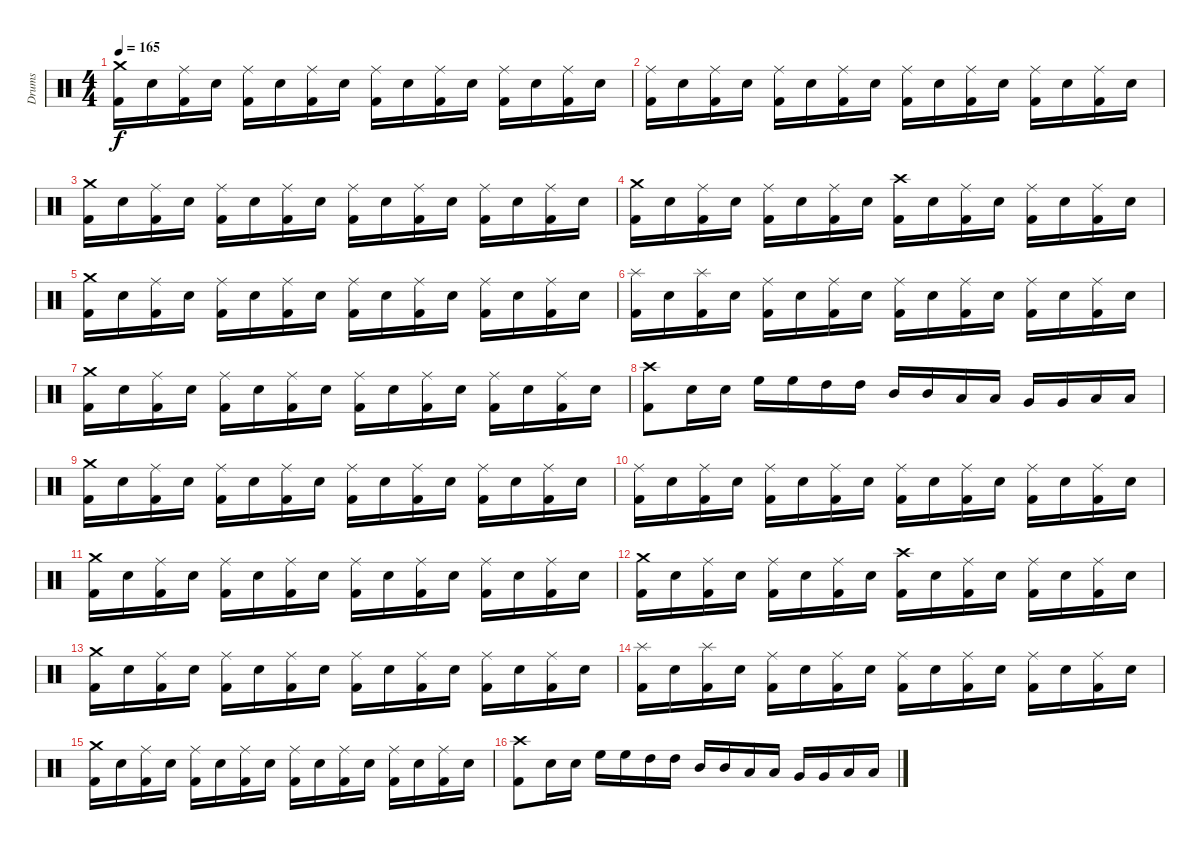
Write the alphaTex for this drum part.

\track ("Drums" "Drums") {instrument percussion}
\staff {score}
\articulation defaults
\ts (4 4)
\tempo 165
\clef neutral
\ks c
("Kick (hit) 2" "Crash medium (hit)").16{dy f} "Electric Snare (hit)".16 ("Kick (hit) 2" "Ride (middle)").16 "Electric Snare (hit)".16 ("Kick (hit) 2" "Ride (middle)").16 "Electric Snare (hit)".16 ("Kick (hit) 2" "Ride (middle)").16 "Electric Snare (hit)".16 ("Kick (hit) 2" "Ride (middle)").16 "Electric Snare (hit)".16 ("Kick (hit) 2" "Ride (middle)").16 "Electric Snare (hit)".16 ("Kick (hit) 2" "Ride (middle)").16 "Electric Snare (hit)".16 ("Kick (hit) 2" "Ride (middle)").16 "Electric Snare (hit)".16 |
("Kick (hit) 2" "Ride (middle)").16 "Electric Snare (hit)".16 ("Kick (hit) 2" "Ride (middle)").16 "Electric Snare (hit)".16 ("Kick (hit) 2" "Ride (middle)").16 "Electric Snare (hit)".16 ("Kick (hit) 2" "Ride (middle)").16 "Electric Snare (hit)".16 ("Kick (hit) 2" "Ride (middle)").16 "Electric Snare (hit)".16 ("Kick (hit) 2" "Ride (middle)").16 "Electric Snare (hit)".16 ("Kick (hit) 2" "Ride (middle)").16 "Electric Snare (hit)".16 ("Kick (hit) 2" "Ride (middle)").16 "Electric Snare (hit)".16 |
("Kick (hit) 2" "Crash medium (hit)").16 "Electric Snare (hit)".16 ("Kick (hit) 2" "Ride (middle)").16 "Electric Snare (hit)".16 ("Kick (hit) 2" "Ride (middle)").16 "Electric Snare (hit)".16 ("Kick (hit) 2" "Ride (middle)").16 "Electric Snare (hit)".16 ("Kick (hit) 2" "Ride (middle)").16 "Electric Snare (hit)".16 ("Kick (hit) 2" "Ride (middle)").16 "Electric Snare (hit)".16 ("Kick (hit) 2" "Ride (middle)").16 "Electric Snare (hit)".16 ("Kick (hit) 2" "Ride (middle)").16 "Electric Snare (hit)".16 |
("Kick (hit) 2" "Crash medium (hit)").16 "Electric Snare (hit)".16 ("Kick (hit) 2" "Ride (middle)").16 "Electric Snare (hit)".16 ("Kick (hit) 2" "Ride (middle)").16 "Electric Snare (hit)".16 ("Kick (hit) 2" "Ride (middle)").16 "Electric Snare (hit)".16 ("Kick (hit) 2" "Crash high (hit)").16 "Electric Snare (hit)".16 ("Kick (hit) 2" "Ride (middle)").16 "Electric Snare (hit)".16 ("Kick (hit) 2" "Ride (middle)").16 "Electric Snare (hit)".16 ("Kick (hit) 2" "Ride (middle)").16 "Electric Snare (hit)".16 |
("Kick (hit) 2" "Crash medium (hit)").16 "Electric Snare (hit)".16 ("Kick (hit) 2" "Ride (middle)").16 "Electric Snare (hit)".16 ("Kick (hit) 2" "Ride (middle)").16 "Electric Snare (hit)".16 ("Kick (hit) 2" "Ride (middle)").16 "Electric Snare (hit)".16 ("Kick (hit) 2" "Ride (middle)").16 "Electric Snare (hit)".16 ("Kick (hit) 2" "Ride (middle)").16 "Electric Snare (hit)".16 ("Kick (hit) 2" "Ride (middle)").16 "Electric Snare (hit)".16 ("Kick (hit) 2" "Ride (middle)").16 "Electric Snare (hit)".16 |
("Kick (hit) 2" "Splash (hit)").16 "Electric Snare (hit)".16 ("Kick (hit) 2" "Splash (hit)").16 "Electric Snare (hit)".16 ("Kick (hit) 2" "Ride (middle)").16 "Electric Snare (hit)".16 ("Kick (hit) 2" "Ride (middle)").16 "Electric Snare (hit)".16 ("Kick (hit) 2" "Ride (middle)").16 "Electric Snare (hit)".16 ("Kick (hit) 2" "Ride (middle)").16 "Electric Snare (hit)".16 ("Kick (hit) 2" "Ride (middle)").16 "Electric Snare (hit)".16 ("Kick (hit) 2" "Ride (middle)").16 "Electric Snare (hit)".16 |
("Kick (hit) 2" "Crash medium (hit)").16 "Electric Snare (hit)".16 ("Kick (hit) 2" "Ride (middle)").16 "Electric Snare (hit)".16 ("Kick (hit) 2" "Ride (middle)").16 "Electric Snare (hit)".16 ("Kick (hit) 2" "Ride (middle)").16 "Electric Snare (hit)".16 ("Kick (hit) 2" "Ride (middle)").16 "Electric Snare (hit)".16 ("Kick (hit) 2" "Ride (middle)").16 "Electric Snare (hit)".16 ("Kick (hit) 2" "Ride (middle)").16 "Electric Snare (hit)".16 ("Kick (hit) 2" "Ride (middle)").16 "Electric Snare (hit)".16 |
("Kick (hit) 2" "Crash high (hit)").8 "Electric Snare (hit)".16 "Electric Snare (hit)".16 "High Floor Tom (hit)".16 "High Floor Tom (hit)".16 "High Tom (hit)".16 "High Tom (hit)".16 "Mid Tom (hit)".16 "Mid Tom (hit)".16 "Low Tom (hit)".16 "Low Tom (hit)".16 "Very Low Tom (hit)".16 "Very Low Tom (hit)".16 "Low Floor Tom (hit)".16 "Low Floor Tom (hit)".16 |
("Kick (hit) 2" "Crash medium (hit)").16 "Electric Snare (hit)".16 ("Kick (hit) 2" "Ride (middle)").16 "Electric Snare (hit)".16 ("Kick (hit) 2" "Ride (middle)").16 "Electric Snare (hit)".16 ("Kick (hit) 2" "Ride (middle)").16 "Electric Snare (hit)".16 ("Kick (hit) 2" "Ride (middle)").16 "Electric Snare (hit)".16 ("Kick (hit) 2" "Ride (middle)").16 "Electric Snare (hit)".16 ("Kick (hit) 2" "Ride (middle)").16 "Electric Snare (hit)".16 ("Kick (hit) 2" "Ride (middle)").16 "Electric Snare (hit)".16 |
("Kick (hit) 2" "Ride (middle)").16 "Electric Snare (hit)".16 ("Kick (hit) 2" "Ride (middle)").16 "Electric Snare (hit)".16 ("Kick (hit) 2" "Ride (middle)").16 "Electric Snare (hit)".16 ("Kick (hit) 2" "Ride (middle)").16 "Electric Snare (hit)".16 ("Kick (hit) 2" "Ride (middle)").16 "Electric Snare (hit)".16 ("Kick (hit) 2" "Ride (middle)").16 "Electric Snare (hit)".16 ("Kick (hit) 2" "Ride (middle)").16 "Electric Snare (hit)".16 ("Kick (hit) 2" "Ride (middle)").16 "Electric Snare (hit)".16 |
("Kick (hit) 2" "Crash medium (hit)").16 "Electric Snare (hit)".16 ("Kick (hit) 2" "Ride (middle)").16 "Electric Snare (hit)".16 ("Kick (hit) 2" "Ride (middle)").16 "Electric Snare (hit)".16 ("Kick (hit) 2" "Ride (middle)").16 "Electric Snare (hit)".16 ("Kick (hit) 2" "Ride (middle)").16 "Electric Snare (hit)".16 ("Kick (hit) 2" "Ride (middle)").16 "Electric Snare (hit)".16 ("Kick (hit) 2" "Ride (middle)").16 "Electric Snare (hit)".16 ("Kick (hit) 2" "Ride (middle)").16 "Electric Snare (hit)".16 |
("Kick (hit) 2" "Crash medium (hit)").16 "Electric Snare (hit)".16 ("Kick (hit) 2" "Ride (middle)").16 "Electric Snare (hit)".16 ("Kick (hit) 2" "Ride (middle)").16 "Electric Snare (hit)".16 ("Kick (hit) 2" "Ride (middle)").16 "Electric Snare (hit)".16 ("Kick (hit) 2" "Crash high (hit)").16 "Electric Snare (hit)".16 ("Kick (hit) 2" "Ride (middle)").16 "Electric Snare (hit)".16 ("Kick (hit) 2" "Ride (middle)").16 "Electric Snare (hit)".16 ("Kick (hit) 2" "Ride (middle)").16 "Electric Snare (hit)".16 |
("Kick (hit) 2" "Crash medium (hit)").16 "Electric Snare (hit)".16 ("Kick (hit) 2" "Ride (middle)").16 "Electric Snare (hit)".16 ("Kick (hit) 2" "Ride (middle)").16 "Electric Snare (hit)".16 ("Kick (hit) 2" "Ride (middle)").16 "Electric Snare (hit)".16 ("Kick (hit) 2" "Ride (middle)").16 "Electric Snare (hit)".16 ("Kick (hit) 2" "Ride (middle)").16 "Electric Snare (hit)".16 ("Kick (hit) 2" "Ride (middle)").16 "Electric Snare (hit)".16 ("Kick (hit) 2" "Ride (middle)").16 "Electric Snare (hit)".16 |
("Kick (hit) 2" "Splash (hit)").16 "Electric Snare (hit)".16 ("Kick (hit) 2" "Splash (hit)").16 "Electric Snare (hit)".16 ("Kick (hit) 2" "Ride (middle)").16 "Electric Snare (hit)".16 ("Kick (hit) 2" "Ride (middle)").16 "Electric Snare (hit)".16 ("Kick (hit) 2" "Ride (middle)").16 "Electric Snare (hit)".16 ("Kick (hit) 2" "Ride (middle)").16 "Electric Snare (hit)".16 ("Kick (hit) 2" "Ride (middle)").16 "Electric Snare (hit)".16 ("Kick (hit) 2" "Ride (middle)").16 "Electric Snare (hit)".16 |
("Kick (hit) 2" "Crash medium (hit)").16 "Electric Snare (hit)".16 ("Kick (hit) 2" "Ride (middle)").16 "Electric Snare (hit)".16 ("Kick (hit) 2" "Ride (middle)").16 "Electric Snare (hit)".16 ("Kick (hit) 2" "Ride (middle)").16 "Electric Snare (hit)".16 ("Kick (hit) 2" "Ride (middle)").16 "Electric Snare (hit)".16 ("Kick (hit) 2" "Ride (middle)").16 "Electric Snare (hit)".16 ("Kick (hit) 2" "Ride (middle)").16 "Electric Snare (hit)".16 ("Kick (hit) 2" "Ride (middle)").16 "Electric Snare (hit)".16 |
("Kick (hit) 2" "Crash high (hit)").8 "Electric Snare (hit)".16 "Electric Snare (hit)".16 "High Floor Tom (hit)".16 "High Floor Tom (hit)".16 "High Tom (hit)".16 "High Tom (hit)".16 "Mid Tom (hit)".16 "Mid Tom (hit)".16 "Low Tom (hit)".16 "Low Tom (hit)".16 "Very Low Tom (hit)".16 "Very Low Tom (hit)".16 "Low Floor Tom (hit)".16 "Low Floor Tom (hit)".16
